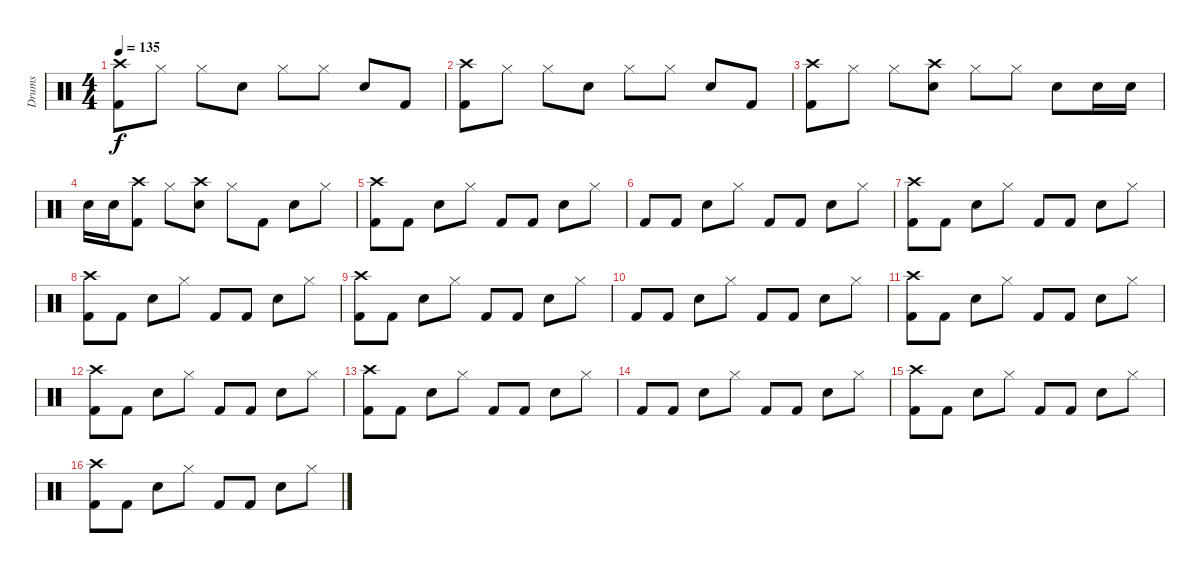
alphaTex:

\track ("Drums" "Drums") {instrument percussion}
\staff {score}
\articulation defaults
\ts (4 4)
\tempo 135
\clef neutral
\ks c
("Crash high (hit)" "Kick (hit) 2").8{dy f} "Hi-Hat (closed)".8 "Hi-Hat (closed)".8 "Snare (hit) 2".8 "Hi-Hat (closed)".8 "Hi-Hat (closed)".8 "Snare (hit) 2".8 "Kick (hit) 2".8 |
("Crash high (hit)" "Kick (hit) 2").8 "Hi-Hat (closed)".8 "Hi-Hat (closed)".8 "Snare (hit) 2".8 "Hi-Hat (closed)".8 "Hi-Hat (closed)".8 "Snare (hit) 2".8 "Kick (hit) 2".8 |
("Crash high (hit)" "Kick (hit) 2").8 "Hi-Hat (closed)".8 "Hi-Hat (closed)".8 ("Crash high (hit)" "Snare (hit) 2").8 "Hi-Hat (closed)".8 "Hi-Hat (closed)".8 "Snare (hit) 2".8 "Snare (hit) 2".16 "Snare (hit) 2".16 |
"Snare (hit) 2".16 "Snare (hit) 2".16 ("Crash high (hit)" "Kick (hit) 2").8 "Hi-Hat (closed)".8 ("Crash high (hit)" "Snare (hit) 2").8 "Hi-Hat (closed)".8 "Kick (hit) 2".8 "Snare (hit) 2".8 "Hi-Hat (closed)".8 |
("Crash high (hit)" "Kick (hit) 2").8 "Kick (hit) 2".8 "Snare (hit) 2".8 "Hi-Hat (closed)".8 "Kick (hit) 2".8 "Kick (hit) 2".8 "Snare (hit) 2".8 "Hi-Hat (closed)".8 |
"Kick (hit) 2".8 "Kick (hit) 2".8 "Snare (hit) 2".8 "Hi-Hat (closed)".8 "Kick (hit) 2".8 "Kick (hit) 2".8 "Snare (hit) 2".8 "Hi-Hat (closed)".8 |
("Crash high (hit)" "Kick (hit) 2").8 "Kick (hit) 2".8 "Snare (hit) 2".8 "Hi-Hat (closed)".8 "Kick (hit) 2".8 "Kick (hit) 2".8 "Snare (hit) 2".8 "Hi-Hat (closed)".8 |
("Crash high (hit)" "Kick (hit) 2").8 "Kick (hit) 2".8 "Snare (hit) 2".8 "Hi-Hat (closed)".8 "Kick (hit) 2".8 "Kick (hit) 2".8 "Snare (hit) 2".8 "Hi-Hat (closed)".8 |
("Crash high (hit)" "Kick (hit) 2").8 "Kick (hit) 2".8 "Snare (hit) 2".8 "Hi-Hat (closed)".8 "Kick (hit) 2".8 "Kick (hit) 2".8 "Snare (hit) 2".8 "Hi-Hat (closed)".8 |
"Kick (hit) 2".8 "Kick (hit) 2".8 "Snare (hit) 2".8 "Hi-Hat (closed)".8 "Kick (hit) 2".8 "Kick (hit) 2".8 "Snare (hit) 2".8 "Hi-Hat (closed)".8 |
("Crash high (hit)" "Kick (hit) 2").8 "Kick (hit) 2".8 "Snare (hit) 2".8 "Hi-Hat (closed)".8 "Kick (hit) 2".8 "Kick (hit) 2".8 "Snare (hit) 2".8 "Hi-Hat (closed)".8 |
("Crash high (hit)" "Kick (hit) 2").8 "Kick (hit) 2".8 "Snare (hit) 2".8 "Hi-Hat (closed)".8 "Kick (hit) 2".8 "Kick (hit) 2".8 "Snare (hit) 2".8 "Hi-Hat (closed)".8 |
("Crash high (hit)" "Kick (hit) 2").8 "Kick (hit) 2".8 "Snare (hit) 2".8 "Hi-Hat (closed)".8 "Kick (hit) 2".8 "Kick (hit) 2".8 "Snare (hit) 2".8 "Hi-Hat (closed)".8 |
"Kick (hit) 2".8 "Kick (hit) 2".8 "Snare (hit) 2".8 "Hi-Hat (closed)".8 "Kick (hit) 2".8 "Kick (hit) 2".8 "Snare (hit) 2".8 "Hi-Hat (closed)".8 |
("Crash high (hit)" "Kick (hit) 2").8 "Kick (hit) 2".8 "Snare (hit) 2".8 "Hi-Hat (closed)".8 "Kick (hit) 2".8 "Kick (hit) 2".8 "Snare (hit) 2".8 "Hi-Hat (closed)".8 |
("Crash high (hit)" "Kick (hit) 2").8 "Kick (hit) 2".8 "Snare (hit) 2".8 "Hi-Hat (closed)".8 "Kick (hit) 2".8 "Kick (hit) 2".8 "Snare (hit) 2".8 "Hi-Hat (closed)".8
